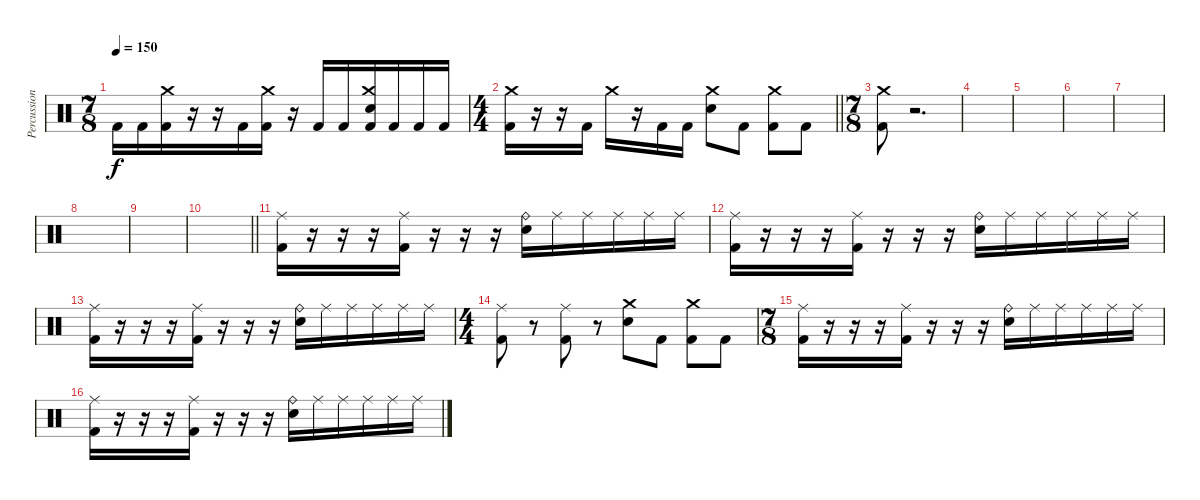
\track ("Percussion" "Percussion") {instrument percussion}
\staff {score}
\articulation defaults
\ts (7 8)
\tempo 150
\clef neutral
\ks c "Kick (hit) 2".16{dy f} "Kick (hit) 2".16
("Crash medium (hit)" "Kick (hit) 2").16 r.16 r.16 "Kick (hit) 2".16 ("Crash medium (hit)" "Kick (hit) 2").16 r.16 "Kick (hit) 2".16 "Kick (hit) 2".16 ("Crash medium (hit)" "Electric Snare (hit)" "Kick (hit) 2").16 "Kick (hit) 2".16 "Kick (hit) 2".16 "Kick (hit) 2".16 |
\ts (4 4)
\barLineRight lightlight
("Crash medium (hit)" "Kick (hit) 2").16 r.16 r.16 "Kick (hit) 2".16 "Crash medium (hit)".16 r.16 "Kick (hit) 2".16 "Kick (hit) 2".16 ("Crash medium (hit)" "Electric Snare (hit)").8 "Kick (hit) 2".8 ("Crash medium (hit)" "Kick (hit) 2").8 "Kick (hit) 2".8 |
\ts (7 8)
\section ("" "")
("Crash medium (hit)" "Kick (hit) 2").8 r.2{d} |
|
|
|
|
|
|
\barLineRight lightlight
|
\section ("" "")
("Ride (middle)" "Kick (hit) 2").16 r.16 r.16 r.16 ("Ride (middle)" "Kick (hit) 2").16 r.16 r.16 r.16 ("Ride (bell)" "Electric Snare (hit)").16 "Ride (middle)".16 "Ride (middle)".16 "Ride (middle)".16 "Ride (middle)".16 "Ride (middle)".16 |
("Ride (middle)" "Kick (hit) 2").16 r.16 r.16 r.16 ("Ride (middle)" "Kick (hit) 2").16 r.16 r.16 r.16 ("Ride (bell)" "Electric Snare (hit)").16 "Ride (middle)".16 "Ride (middle)".16 "Ride (middle)".16 "Ride (middle)".16 "Ride (middle)".16 |
("Ride (middle)" "Kick (hit) 2").16 r.16 r.16 r.16 ("Ride (middle)" "Kick (hit) 2").16 r.16 r.16 r.16 ("Ride (bell)" "Electric Snare (hit)").16 "Ride (middle)".16 "Ride (middle)".16 "Ride (middle)".16 "Ride (middle)".16 "Ride (middle)".16 |
\ts (4 4)
("Ride (middle)" "Kick (hit) 2").8 r.8 ("Ride (middle)" "Kick (hit) 2").8 r.8 ("Crash medium (hit)" "Electric Snare (hit)").8 "Kick (hit) 2".8 ("Crash medium (hit)" "Kick (hit) 2").8 "Kick (hit) 2".8 |
\ts (7 8)
("Ride (middle)" "Kick (hit) 2").16 r.16 r.16 r.16 ("Ride (middle)" "Kick (hit) 2").16 r.16 r.16 r.16 ("Ride (bell)" "Electric Snare (hit)").16 "Ride (middle)".16 "Ride (middle)".16 "Ride (middle)".16 "Ride (middle)".16 "Ride (middle)".16 |
("Ride (middle)" "Kick (hit) 2").16 r.16 r.16 r.16 ("Ride (middle)" "Kick (hit) 2").16 r.16 r.16 r.16 ("Ride (bell)" "Electric Snare (hit)").16 "Ride (middle)".16 "Ride (middle)".16 "Ride (middle)".16 "Ride (middle)".16 "Ride (middle)".16
